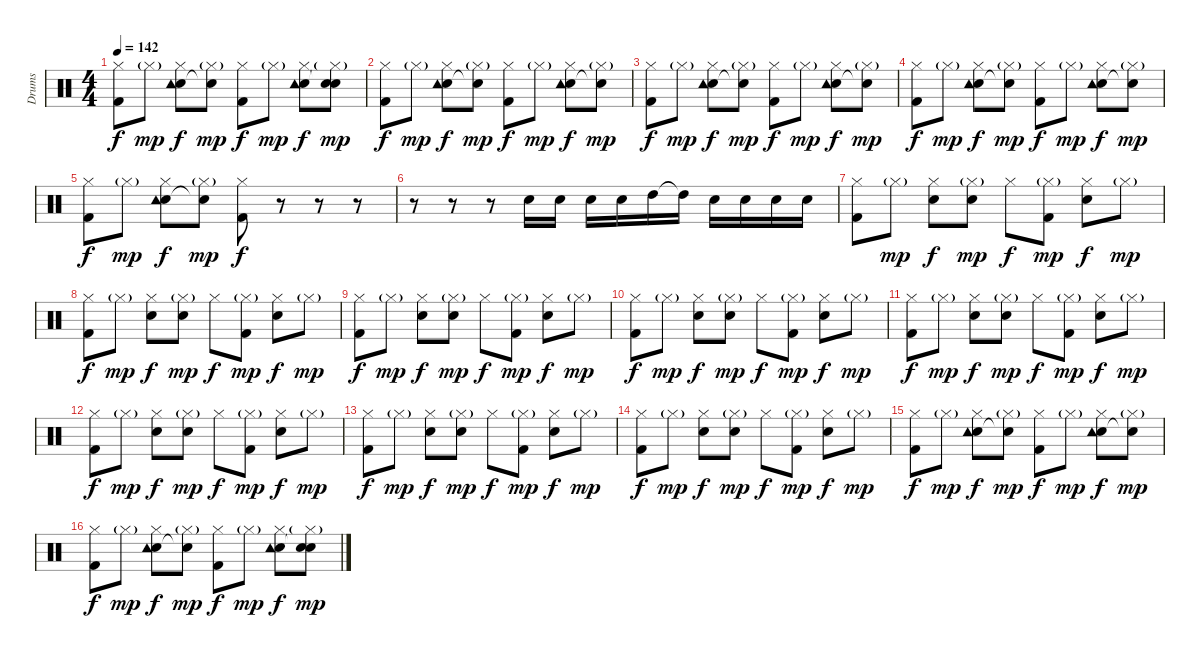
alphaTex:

\track ("Drums" "Drums") {instrument percussion}
\staff {score}
\articulation defaults
\ts (4 4)
\tempo 142
\clef neutral
\ks c
("Hi-Hat (closed)" "Kick (hit) 2").8{dy f} "Hi-Hat (closed)"{g}.8{dy mp} ("Hi-Hat (closed)" "Snare (hit) 2" "Tambourine (hit)").8{dy f} ("Hi-Hat (closed)"{g} "Snare (hit)"{t}).8{dy mp} ("Hi-Hat (closed)" "Kick (hit) 2").8{dy f} "Hi-Hat (closed)"{g}.8{dy mp} ("Hi-Hat (closed)" "Snare (hit) 2" "Tambourine (hit)").8{dy f} ("Hi-Hat (closed)"{g} "Snare (hit) 2" "Snare (hit)"{t}).8{dy mp} |
("Hi-Hat (closed)" "Kick (hit) 2").8{dy f} "Hi-Hat (closed)"{g}.8{dy mp} ("Hi-Hat (closed)" "Snare (hit) 2" "Tambourine (hit)").8{dy f} ("Hi-Hat (closed)"{g} "Snare (hit)"{t}).8{dy mp} ("Hi-Hat (closed)" "Kick (hit) 2").8{dy f} "Hi-Hat (closed)"{g}.8{dy mp} ("Hi-Hat (closed)" "Snare (hit) 2" "Tambourine (hit)").8{dy f} ("Hi-Hat (closed)"{g} "Snare (hit)"{t}).8{dy mp} |
("Hi-Hat (closed)" "Kick (hit) 2").8{dy f} "Hi-Hat (closed)"{g}.8{dy mp} ("Hi-Hat (closed)" "Snare (hit) 2" "Tambourine (hit)").8{dy f} ("Hi-Hat (closed)"{g} "Snare (hit)"{t}).8{dy mp} ("Hi-Hat (closed)" "Kick (hit) 2").8{dy f} "Hi-Hat (closed)"{g}.8{dy mp} ("Hi-Hat (closed)" "Snare (hit) 2" "Tambourine (hit)").8{dy f} ("Hi-Hat (closed)"{g} "Snare (hit)"{t}).8{dy mp} |
("Hi-Hat (closed)" "Kick (hit) 2").8{dy f} "Hi-Hat (closed)"{g}.8{dy mp} ("Hi-Hat (closed)" "Snare (hit) 2" "Tambourine (hit)").8{dy f} ("Hi-Hat (closed)"{g} "Snare (hit)"{t}).8{dy mp} ("Hi-Hat (closed)" "Kick (hit) 2").8{dy f} "Hi-Hat (closed)"{g}.8{dy mp} ("Hi-Hat (closed)" "Snare (hit) 2" "Tambourine (hit)").8{dy f} ("Hi-Hat (closed)"{g} "Snare (hit)"{t}).8{dy mp} |
("Hi-Hat (closed)" "Kick (hit) 2").8{dy f} "Hi-Hat (closed)"{g}.8{dy mp} ("Hi-Hat (closed)" "Snare (hit) 2" "Tambourine (hit)").8{dy f} ("Hi-Hat (closed)"{g} "Snare (hit)"{t}).8{dy mp} ("Hi-Hat (closed)" "Kick (hit) 2").8{dy f} r.8 r.8 r.8 |
r.8 r.8 r.8 "Snare (hit) 2".16 "Snare (hit) 2".16 "Snare (hit) 2".16 "Snare (hit) 2".16 "High Tom (hit)".16 "High Tom (hit)"{t}.16 "Snare (hit) 2".16 "Snare (hit) 2".16 "Snare (hit) 2".16 "Snare (hit) 2".16 |
("Hi-Hat (closed)" "Kick (hit) 2").8 "Hi-Hat (closed)"{g}.8{dy mp} ("Hi-Hat (closed)" "Hand Clap (hit)").8{dy f} ("Hi-Hat (closed)"{g} "Hand Clap (hit)").8{dy mp} "Hi-Hat (closed)".8{dy f} ("Hi-Hat (closed)"{g} "Kick (hit) 2").8{dy mp} ("Hi-Hat (closed)" "Hand Clap (hit)").8{dy f} "Hi-Hat (closed)"{g}.8{dy mp} |
("Hi-Hat (closed)" "Kick (hit) 2").8{dy f} "Hi-Hat (closed)"{g}.8{dy mp} ("Hi-Hat (closed)" "Hand Clap (hit)").8{dy f} ("Hi-Hat (closed)"{g} "Hand Clap (hit)").8{dy mp} "Hi-Hat (closed)".8{dy f} ("Hi-Hat (closed)"{g} "Kick (hit) 2").8{dy mp} ("Hi-Hat (closed)" "Hand Clap (hit)").8{dy f} "Hi-Hat (closed)"{g}.8{dy mp} |
("Hi-Hat (closed)" "Kick (hit) 2").8{dy f} "Hi-Hat (closed)"{g}.8{dy mp} ("Hi-Hat (closed)" "Hand Clap (hit)").8{dy f} ("Hi-Hat (closed)"{g} "Hand Clap (hit)").8{dy mp} "Hi-Hat (closed)".8{dy f} ("Hi-Hat (closed)"{g} "Kick (hit) 2").8{dy mp} ("Hi-Hat (closed)" "Hand Clap (hit)").8{dy f} "Hi-Hat (closed)"{g}.8{dy mp} |
("Hi-Hat (closed)" "Kick (hit) 2").8{dy f} "Hi-Hat (closed)"{g}.8{dy mp} ("Hi-Hat (closed)" "Hand Clap (hit)").8{dy f} ("Hi-Hat (closed)"{g} "Hand Clap (hit)").8{dy mp} "Hi-Hat (closed)".8{dy f} ("Hi-Hat (closed)"{g} "Kick (hit) 2").8{dy mp} ("Hi-Hat (closed)" "Hand Clap (hit)").8{dy f} "Hi-Hat (closed)"{g}.8{dy mp} |
("Hi-Hat (closed)" "Kick (hit) 2").8{dy f} "Hi-Hat (closed)"{g}.8{dy mp} ("Hi-Hat (closed)" "Hand Clap (hit)").8{dy f} ("Hi-Hat (closed)"{g} "Hand Clap (hit)").8{dy mp} "Hi-Hat (closed)".8{dy f} ("Hi-Hat (closed)"{g} "Kick (hit) 2").8{dy mp} ("Hi-Hat (closed)" "Hand Clap (hit)").8{dy f} "Hi-Hat (closed)"{g}.8{dy mp} |
("Hi-Hat (closed)" "Kick (hit) 2").8{dy f} "Hi-Hat (closed)"{g}.8{dy mp} ("Hi-Hat (closed)" "Hand Clap (hit)").8{dy f} ("Hi-Hat (closed)"{g} "Hand Clap (hit)").8{dy mp} "Hi-Hat (closed)".8{dy f} ("Hi-Hat (closed)"{g} "Kick (hit) 2").8{dy mp} ("Hi-Hat (closed)" "Hand Clap (hit)").8{dy f} "Hi-Hat (closed)"{g}.8{dy mp} |
("Hi-Hat (closed)" "Kick (hit) 2").8{dy f} "Hi-Hat (closed)"{g}.8{dy mp} ("Hi-Hat (closed)" "Hand Clap (hit)").8{dy f} ("Hi-Hat (closed)"{g} "Hand Clap (hit)").8{dy mp} "Hi-Hat (closed)".8{dy f} ("Hi-Hat (closed)"{g} "Kick (hit) 2").8{dy mp} ("Hi-Hat (closed)" "Hand Clap (hit)").8{dy f} "Hi-Hat (closed)"{g}.8{dy mp} |
("Hi-Hat (closed)" "Kick (hit) 2").8{dy f} "Hi-Hat (closed)"{g}.8{dy mp} ("Hi-Hat (closed)" "Hand Clap (hit)").8{dy f} ("Hi-Hat (closed)"{g} "Hand Clap (hit)").8{dy mp} "Hi-Hat (closed)".8{dy f} ("Hi-Hat (closed)"{g} "Kick (hit) 2").8{dy mp} ("Hi-Hat (closed)" "Hand Clap (hit)").8{dy f} "Hi-Hat (closed)"{g}.8{dy mp} |
("Hi-Hat (closed)" "Kick (hit) 2").8{dy f} "Hi-Hat (closed)"{g}.8{dy mp} ("Hi-Hat (closed)" "Snare (hit) 2" "Tambourine (hit)").8{dy f} ("Hi-Hat (closed)"{g} "Snare (hit)"{t}).8{dy mp} ("Hi-Hat (closed)" "Kick (hit) 2").8{dy f} "Hi-Hat (closed)"{g}.8{dy mp} ("Hi-Hat (closed)" "Snare (hit) 2" "Tambourine (hit)").8{dy f} ("Hi-Hat (closed)"{g} "Snare (hit)"{t}).8{dy mp} |
("Hi-Hat (closed)" "Kick (hit) 2").8{dy f} "Hi-Hat (closed)"{g}.8{dy mp} ("Hi-Hat (closed)" "Snare (hit) 2" "Tambourine (hit)").8{dy f} ("Hi-Hat (closed)"{g} "Snare (hit)"{t}).8{dy mp} ("Hi-Hat (closed)" "Kick (hit) 2").8{dy f} "Hi-Hat (closed)"{g}.8{dy mp} ("Hi-Hat (closed)" "Snare (hit) 2" "Tambourine (hit)").8{dy f} ("Hi-Hat (closed)"{g} "Snare (hit) 2" "Snare (hit)"{t}).8{dy mp}
